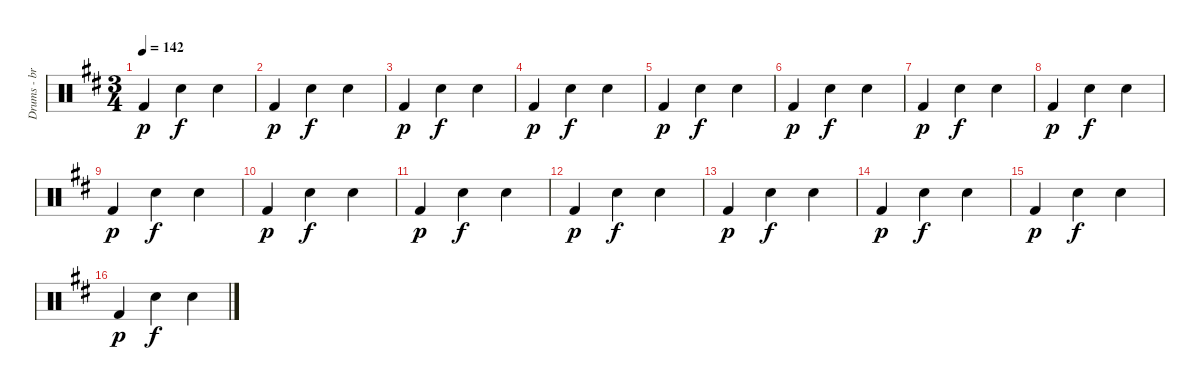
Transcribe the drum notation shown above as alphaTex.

\track ("Drums - brush set" "Drums - br") {instrument percussion}
\staff {score}
\articulation defaults
\ts (3 4)
\tempo 142
\clef neutral
\ks d "Kick (hit) 2".4{dy p} "Snare (hit) 2".4{dy f} "Snare (hit) 2".4
|
"Kick (hit) 2".4{dy p} "Snare (hit) 2".4{dy f} "Snare (hit) 2".4 |
"Kick (hit) 2".4{dy p} "Snare (hit) 2".4{dy f} "Snare (hit) 2".4 |
"Kick (hit) 2".4{dy p} "Snare (hit) 2".4{dy f} "Snare (hit) 2".4 |
"Kick (hit) 2".4{dy p} "Snare (hit) 2".4{dy f} "Snare (hit) 2".4 |
"Kick (hit) 2".4{dy p} "Snare (hit) 2".4{dy f} "Snare (hit) 2".4 |
"Kick (hit) 2".4{dy p} "Snare (hit) 2".4{dy f} "Snare (hit) 2".4 |
"Kick (hit) 2".4{dy p} "Snare (hit) 2".4{dy f} "Snare (hit) 2".4 |
"Kick (hit) 2".4{dy p} "Snare (hit) 2".4{dy f} "Snare (hit) 2".4 |
"Kick (hit) 2".4{dy p} "Snare (hit) 2".4{dy f} "Snare (hit) 2".4 |
"Kick (hit) 2".4{dy p} "Snare (hit) 2".4{dy f} "Snare (hit) 2".4 |
"Kick (hit) 2".4{dy p} "Snare (hit) 2".4{dy f} "Snare (hit) 2".4 |
"Kick (hit) 2".4{dy p} "Snare (hit) 2".4{dy f} "Snare (hit) 2".4 |
"Kick (hit) 2".4{dy p} "Snare (hit) 2".4{dy f} "Snare (hit) 2".4 |
"Kick (hit) 2".4{dy p} "Snare (hit) 2".4{dy f} "Snare (hit) 2".4 |
"Kick (hit) 2".4{dy p} "Snare (hit) 2".4{dy f} "Snare (hit) 2".4
